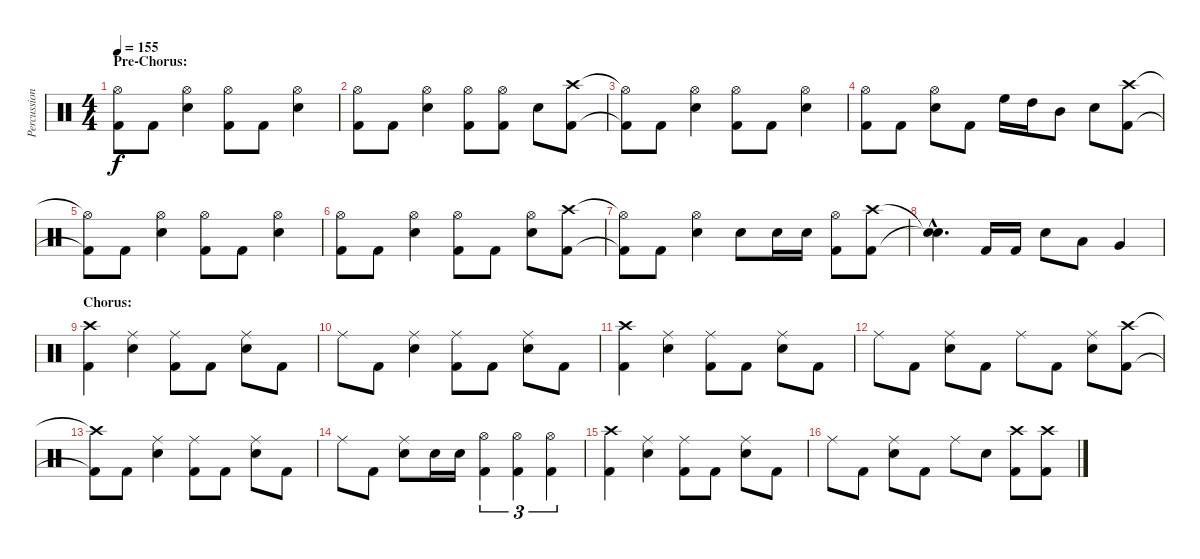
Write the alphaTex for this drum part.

\track ("Percussion" "Percussion") {instrument percussion}
\staff {score}
\articulation defaults
\ts (4 4)
\section ("" "Pre-Chorus:")
\tempo 155
\clef neutral
\ks c
("Hi-Hat (open)"{t} "Kick (hit) 2"{t}).8{dy f} "Kick (hit) 2".8 ("Hi-Hat (open)" "Electric Snare (hit)").4 ("Hi-Hat (open)" "Kick (hit) 2").8 "Kick (hit) 2".8 ("Hi-Hat (open)" "Electric Snare (hit)").4 |
("Hi-Hat (open)" "Kick (hit) 2").8 "Kick (hit) 2".8 ("Hi-Hat (open)" "Electric Snare (hit)").4 ("Hi-Hat (open)" "Kick (hit) 2").8 ("Hi-Hat (open)" "Kick (hit) 2").8 "Electric Snare (hit)".8 ("Crash high (hit)" "Kick (hit) 2").8 |
("Hi-Hat (open)"{t} "Kick (hit) 2"{t}).8 "Kick (hit) 2".8 ("Hi-Hat (open)" "Electric Snare (hit)").4 ("Hi-Hat (open)" "Kick (hit) 2").8 "Kick (hit) 2".8 ("Hi-Hat (open)" "Electric Snare (hit)").4 |
("Hi-Hat (open)" "Kick (hit) 2").8 "Kick (hit) 2".8 ("Hi-Hat (open)" "Electric Snare (hit)").8 "Kick (hit) 2".8 "High Floor Tom (hit)".16 "High Tom (hit)".16 "Mid Tom (hit)".8 "Electric Snare (hit)".8 ("Crash high (hit)" "Kick (hit) 2").8 |
("Hi-Hat (open)"{t} "Kick (hit) 2"{t}).8 "Kick (hit) 2".8 ("Hi-Hat (open)" "Electric Snare (hit)").4 ("Hi-Hat (open)" "Kick (hit) 2").8 "Kick (hit) 2".8 ("Hi-Hat (open)" "Electric Snare (hit)").4 |
("Hi-Hat (open)" "Kick (hit) 2").8 "Kick (hit) 2".8 ("Hi-Hat (open)" "Electric Snare (hit)").4 ("Hi-Hat (open)" "Kick (hit) 2").8 "Kick (hit) 2".8 ("Hi-Hat (open)" "Electric Snare (hit)").8 ("Crash high (hit)" "Kick (hit) 2").8 |
("Hi-Hat (open)"{t} "Kick (hit) 2"{t}).8 "Kick (hit) 2".8 ("Hi-Hat (open)" "Electric Snare (hit)").4 "Electric Snare (hit)".8 "Electric Snare (hit)".16 "Electric Snare (hit)".16 ("Hi-Hat (open)" "Kick (hit) 2").8 ("Crash high (hit)" "Kick (hit) 2").8 |
("Snare (hit)"{hac t} "Snare (hit)"{hac t}).4{d} "Kick (hit) 2".16 "Kick (hit) 2".16 "Electric Snare (hit)".8 "Low Tom (hit)".8 "Very Low Tom (hit)".4 |
\section ("" "Chorus:")
("Crash high (hit)" "Kick (hit) 2").4 ("Ride (middle)" "Electric Snare (hit)").4 ("Ride (middle)" "Kick (hit) 2").8 "Kick (hit) 2".8 ("Ride (middle)" "Electric Snare (hit)").8 "Kick (hit) 2".8 |
"Ride (middle)".8 "Kick (hit) 2".8 ("Ride (middle)" "Electric Snare (hit)").4 ("Ride (middle)" "Kick (hit) 2").8 "Kick (hit) 2".8 ("Ride (middle)" "Electric Snare (hit)").8 "Kick (hit) 2".8 |
("Crash high (hit)" "Kick (hit) 2").4 ("Ride (middle)" "Electric Snare (hit)").4 ("Ride (middle)" "Kick (hit) 2").8 "Kick (hit) 2".8 ("Ride (middle)" "Electric Snare (hit)").8 "Kick (hit) 2".8 |
"Ride (middle)".8 "Kick (hit) 2".8 ("Ride (middle)" "Electric Snare (hit)").8 "Kick (hit) 2".8 "Ride (middle)".8 "Kick (hit) 2".8 ("Ride (middle)" "Electric Snare (hit)").8 ("Crash high (hit)" "Kick (hit) 2").8 |
("Crash high (hit)"{t} "Kick (hit) 2"{t}).8 "Kick (hit) 2".8 ("Ride (middle)" "Electric Snare (hit)").4 ("Ride (middle)" "Kick (hit) 2").8 "Kick (hit) 2".8 ("Ride (middle)" "Electric Snare (hit)").8 "Kick (hit) 2".8 |
"Ride (middle)".8 "Kick (hit) 2".8 ("Ride (middle)" "Electric Snare (hit)").8 "Electric Snare (hit)".16 "Electric Snare (hit)".16 ("Hi-Hat (open)" "Kick (hit) 2").4{tu (3 2)} ("Hi-Hat (open)" "Kick (hit) 2").4{tu (3 2)} ("Hi-Hat (open)" "Kick (hit) 2").4{tu (3 2)} |
("Crash high (hit)" "Kick (hit) 2").4 ("Ride (middle)" "Electric Snare (hit)").4 ("Ride (middle)" "Kick (hit) 2").8 "Kick (hit) 2".8 ("Ride (middle)" "Electric Snare (hit)").8 "Kick (hit) 2".8 |
"Ride (middle)".8 "Kick (hit) 2".8 ("Ride (middle)" "Electric Snare (hit)").8 "Kick (hit) 2".8 "Ride (middle)".8 "Electric Snare (hit)".8 ("Crash high (hit)" "Kick (hit) 2").8 ("Crash high (hit)" "Kick (hit) 2").8
